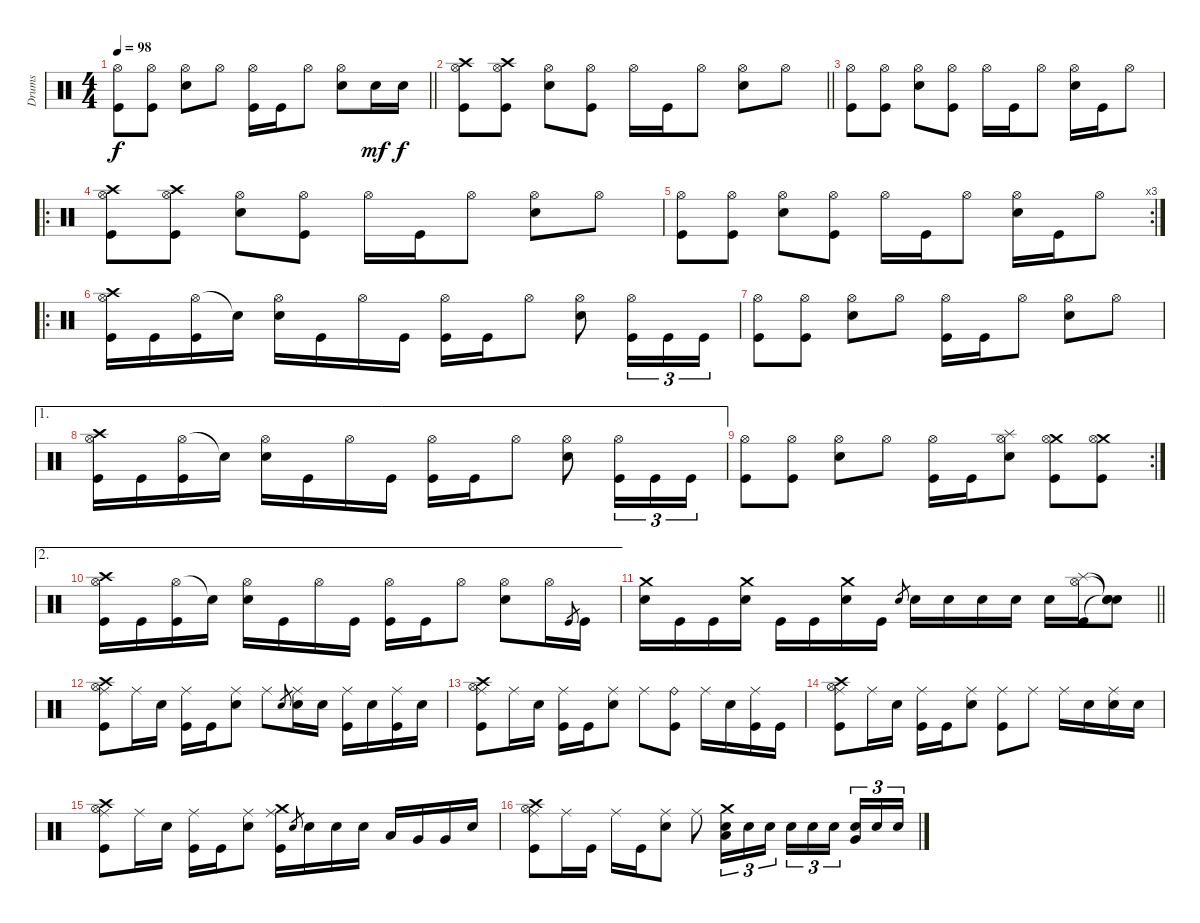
\track ("Drums" "Drums") {instrument percussion}
\staff {score}
\articulation defaults
\ts (4 4)
\tempo 98
\clef neutral
\barLineRight lightlight
\ks aminor
("Hi-Hat (open)" "Kick (hit)").8{dy f} ("Hi-Hat (open)" "Kick (hit)").8 ("Hi-Hat (open)" "Electric Snare (hit)").8 "Hi-Hat (open)".8 ("Hi-Hat (open)" "Kick (hit)").16 "Kick (hit)".16 "Hi-Hat (open)".8 ("Hi-Hat (open)" "Electric Snare (hit)").8 "Electric Snare (hit)".16{dy mf} "Electric Snare (hit)".16{dy f} |
\barLineRight lightlight
("Crash high (hit)" "Hi-Hat (open)" "Kick (hit)").8 ("Crash high (hit)" "Hi-Hat (open)" "Kick (hit)").8 ("Hi-Hat (open)" "Electric Snare (hit)").8 ("Hi-Hat (open)" "Kick (hit)").8 "Hi-Hat (open)".16 "Kick (hit)".16 "Hi-Hat (open)".8 ("Hi-Hat (open)" "Electric Snare (hit)").8 "Hi-Hat (open)".8 |
("Hi-Hat (open)" "Kick (hit)").8 ("Hi-Hat (open)" "Kick (hit)").8 ("Hi-Hat (open)" "Electric Snare (hit)").8 ("Hi-Hat (open)" "Kick (hit)").8 "Hi-Hat (open)".16 "Kick (hit)".16 "Hi-Hat (open)".8 ("Hi-Hat (open)" "Electric Snare (hit)").16 "Kick (hit)".16 "Hi-Hat (open)".8 |
\ro
("Crash high (hit)" "Hi-Hat (open)" "Kick (hit)").8 ("Crash high (hit)" "Hi-Hat (open)" "Kick (hit)").8 ("Hi-Hat (open)" "Electric Snare (hit)").8 ("Hi-Hat (open)" "Kick (hit)").8 "Hi-Hat (open)".16 "Kick (hit)".16 "Hi-Hat (open)".8 ("Hi-Hat (open)" "Electric Snare (hit)").8 "Hi-Hat (open)".8 |
\rc 3
("Hi-Hat (open)" "Kick (hit)").8 ("Hi-Hat (open)" "Kick (hit)").8 ("Hi-Hat (open)" "Electric Snare (hit)").8 ("Hi-Hat (open)" "Kick (hit)").8 "Hi-Hat (open)".16 "Kick (hit)".16 "Hi-Hat (open)".8 ("Hi-Hat (open)" "Electric Snare (hit)").16 "Kick (hit)".16 "Hi-Hat (open)".8 |
\ro
("Crash high (hit)" "Hi-Hat (open)" "Kick (hit)").16 "Kick (hit)".16 ("Hi-Hat (open)" "Kick (hit)").16 "Snare (hit)"{t}.16 ("Hi-Hat (open)" "Electric Snare (hit)").16 "Kick (hit)".16 "Hi-Hat (open)".16 "Kick (hit)".16 ("Hi-Hat (open)" "Kick (hit)").16 "Kick (hit)".16 "Hi-Hat (open)".8 ("Hi-Hat (open)" "Electric Snare (hit)").8 ("Hi-Hat (open)" "Kick (hit)").16{tu (3 2)} "Kick (hit)".16{tu (3 2)} "Kick (hit)".16{tu (3 2)} |
("Hi-Hat (open)" "Kick (hit)").8 ("Hi-Hat (open)" "Kick (hit)").8 ("Hi-Hat (open)" "Electric Snare (hit)").8 "Hi-Hat (open)".8 ("Hi-Hat (open)" "Kick (hit)").16 "Kick (hit)".16 "Hi-Hat (open)".8 ("Hi-Hat (open)" "Electric Snare (hit)").8 "Hi-Hat (open)".8 |
\ae 1
("Crash high (hit)" "Hi-Hat (open)" "Kick (hit)").16 "Kick (hit)".16 ("Hi-Hat (open)" "Kick (hit)").16 "Snare (hit)"{t}.16 ("Hi-Hat (open)" "Electric Snare (hit)").16 "Kick (hit)".16 "Hi-Hat (open)".16 "Kick (hit)".16 ("Hi-Hat (open)" "Kick (hit)").16 "Kick (hit)".16 "Hi-Hat (open)".8 ("Hi-Hat (open)" "Electric Snare (hit)").8 ("Hi-Hat (open)" "Kick (hit)").16{tu (3 2)} "Kick (hit)".16{tu (3 2)} "Kick (hit)".16{tu (3 2)} |
\rc 2
("Hi-Hat (open)" "Kick (hit)").8 ("Hi-Hat (open)" "Kick (hit)").8 ("Hi-Hat (open)" "Electric Snare (hit)").8 "Hi-Hat (open)".8 ("Hi-Hat (open)" "Kick (hit)").16 "Kick (hit)".16 ("Splash (hit)" "Hi-Hat (open)" "Electric Snare (hit)").8 ("Crash medium (hit)" "Hi-Hat (open)" "Kick (hit)").8 ("Crash medium (hit)" "Hi-Hat (open)" "Kick (hit)").8 |
\ae 2
("Crash high (hit)" "Hi-Hat (open)" "Kick (hit)").16 "Kick (hit)".16 ("Hi-Hat (open)" "Kick (hit)").16 "Snare (hit)"{t}.16 ("Hi-Hat (open)" "Electric Snare (hit)").16 "Kick (hit)".16 "Hi-Hat (open)".16 "Kick (hit)".16 ("Hi-Hat (open)" "Kick (hit)").16 "Kick (hit)".16 "Hi-Hat (open)".8 ("Hi-Hat (open)" "Electric Snare (hit)").8 "Hi-Hat (open)".16 "Kick (hit)".8{gr} "Kick (hit)".16 |
\barLineRight lightlight
("Crash medium (hit)" "Electric Snare (hit)").16 "Kick (hit)".16 "Kick (hit)".16 ("Crash medium (hit)" "Electric Snare (hit)").16 "Kick (hit)".16 "Kick (hit)".16 ("Crash medium (hit)" "Electric Snare (hit)").16 "Kick (hit)".16 "Electric Snare (hit)".8{gr} "Electric Snare (hit)".16 "Electric Snare (hit)".16 "Electric Snare (hit)".16 "Electric Snare (hit)".16 "Electric Snare (hit)".16 ("Splash (hit)" "Hi-Hat (open)" "Kick (hit)").16 ("Snare (hit)"{t} "Snare (hit)"{t} "Snare (hit)"{t}).8 |
("Ride (middle)" "Crash high (hit)" "Hi-Hat (open)" "Kick (hit)").8 "Ride (middle)".16 "Electric Snare (hit)".16 ("Ride (middle)" "Kick (hit)").16 "Kick (hit)".16 ("Ride (middle)" "Electric Snare (hit)").8 "Ride (middle)".8 "Electric Snare (hit)".8{gr} ("Ride (middle)" "Electric Snare (hit)").16 "Electric Snare (hit)".16 ("Ride (middle)" "Kick (hit)").16 "Electric Snare (hit)".16 ("Ride (middle)" "Kick (hit)").16 "Electric Snare (hit)".16 |
("Ride (middle)" "Crash high (hit)" "Hi-Hat (open)" "Kick (hit)").8 "Ride (middle)".16 "Electric Snare (hit)".16 ("Ride (middle)" "Kick (hit)").16 "Kick (hit)".16 ("Ride (middle)" "Electric Snare (hit)").8 "Ride (middle)".8 ("Ride (bell)" "Kick (hit)").8 "Ride (middle)".16 "Electric Snare (hit)".16 ("Ride (middle)" "Kick (hit)").16 "Kick (hit)".16 |
("Ride (middle)" "Crash high (hit)" "Hi-Hat (open)" "Kick (hit)").8 "Ride (middle)".16 "Electric Snare (hit)".16 ("Ride (middle)" "Kick (hit)").16 "Kick (hit)".16 ("Ride (middle)" "Electric Snare (hit)").8 ("Ride (middle)" "Kick (hit)").8 "Ride (middle)".8 "Ride (middle)".16 "Electric Snare (hit)".16 ("Ride (middle)" "Electric Snare (hit)").16 "Electric Snare (hit)".16 |
("Ride (middle)" "Crash high (hit)" "Hi-Hat (open)" "Kick (hit)").8 "Ride (middle)".16 "Electric Snare (hit)".16 ("Ride (middle)" "Kick (hit)").16 "Kick (hit)".16 ("Ride (middle)" "Electric Snare (hit)").8 ("Crash medium (hit)" "Ride (middle)" "Kick (hit)").16 "Electric Snare (hit)".8{gr} "Electric Snare (hit)".16 "Electric Snare (hit)".16 "Electric Snare (hit)".16 "Low Tom (hit)".16 "Very Low Tom (hit)".16 "Very Low Tom (hit)".16 "Electric Snare (hit)".16 |
("Ride (middle)" "Crash high (hit)" "Hi-Hat (open)" "Kick (hit)").8 "Ride (middle)".16 "Kick (hit)".16 "Ride (middle)".16 "Kick (hit)".16 ("Ride (middle)" "Electric Snare (hit)").8 "Ride (middle)".8 ("Crash medium (hit)" "Low Tom (hit)" "Electric Snare (hit)").16{tu (3 2)} "Electric Snare (hit)".16{tu (3 2)} "Electric Snare (hit)".16{tu (3 2)} "Electric Snare (hit)".16{tu (3 2)} "Electric Snare (hit)".16{tu (3 2)} "Electric Snare (hit)".16{tu (3 2) beam splitsecondary} ("Very Low Tom (hit)" "Electric Snare (hit)").16{tu (3 2)} "Electric Snare (hit)".16{tu (3 2)} "Electric Snare (hit)".16{tu (3 2)}
